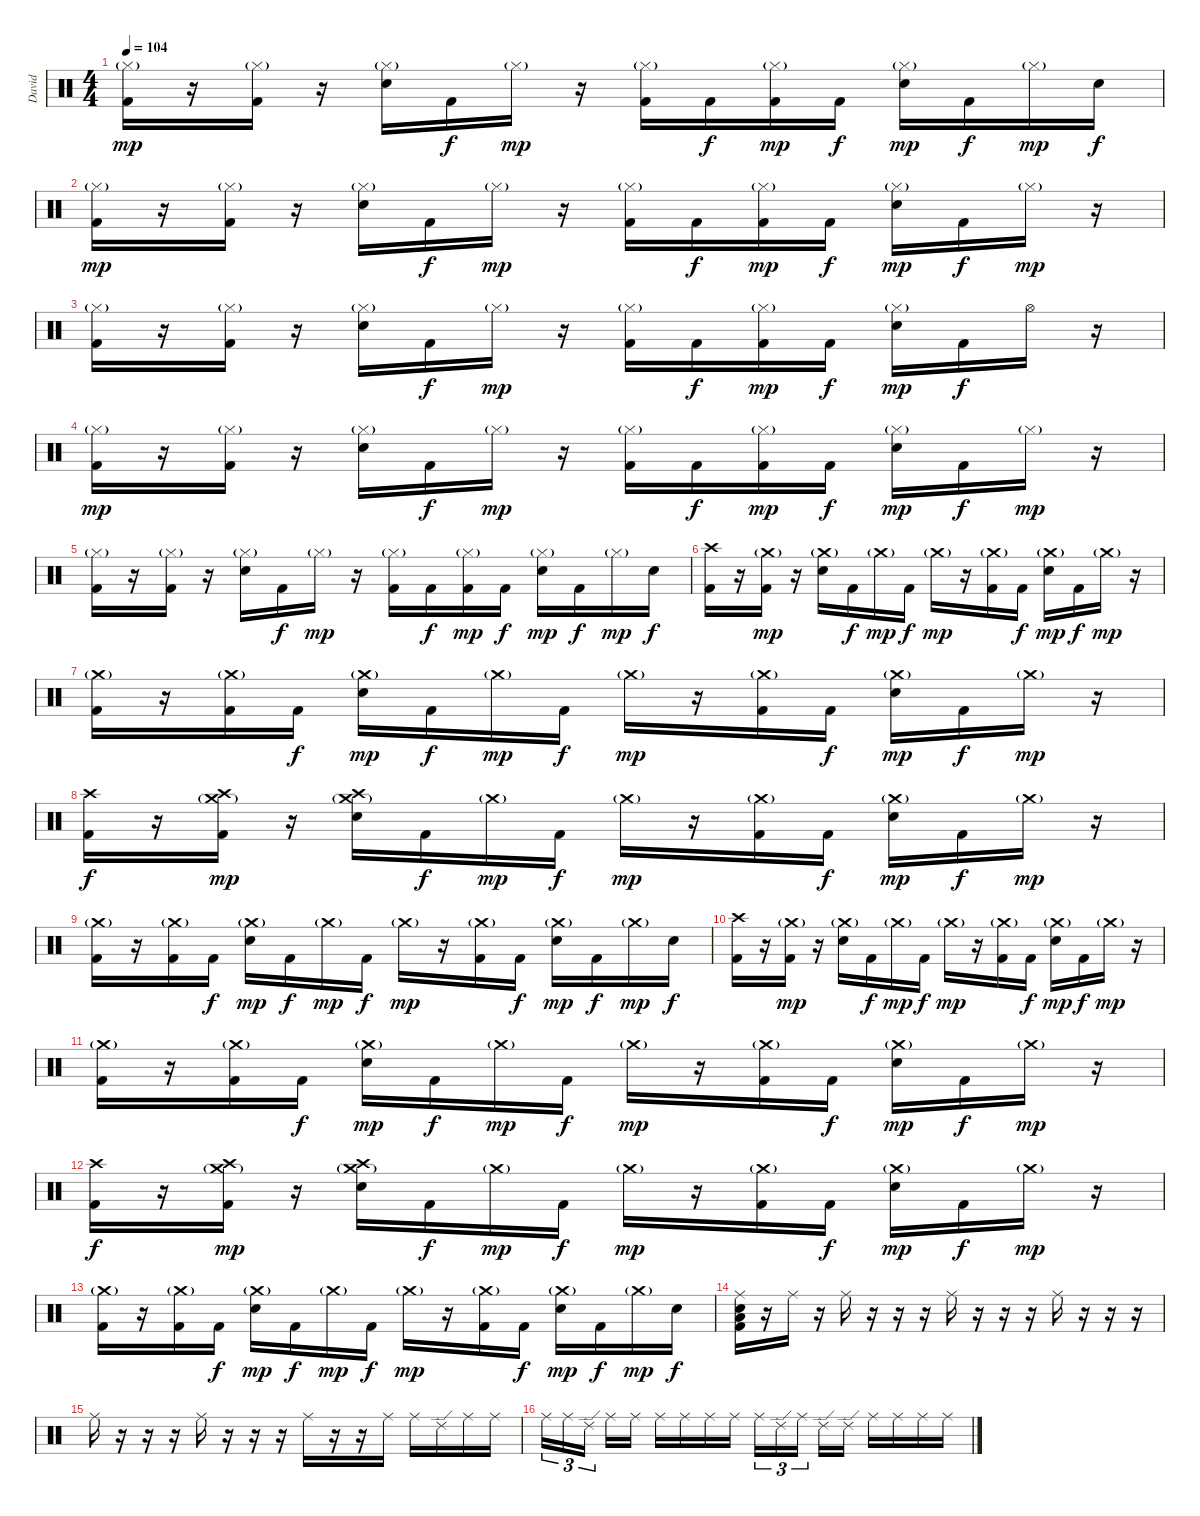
\track ("David" "David") {instrument percussion}
\staff {score}
\articulation defaults
\ts (4 4)
\tempo 104
\clef neutral
\ks c
("Hi-Hat (closed)"{g} "Kick (hit) 2").16{dy mp} r.16 ("Hi-Hat (closed)"{g} "Kick (hit) 2").16 r.16 ("Hi-Hat (closed)"{g} "Electric Snare (hit)").16 "Kick (hit) 2".16{dy f} "Hi-Hat (closed)"{g}.16{dy mp} r.16 ("Hi-Hat (closed)"{g} "Kick (hit) 2").16 "Kick (hit) 2".16{dy f} ("Hi-Hat (closed)"{g} "Kick (hit) 2").16{dy mp} "Kick (hit) 2".16{dy f} ("Hi-Hat (closed)"{g} "Electric Snare (hit)").16{dy mp} "Kick (hit) 2".16{dy f} "Hi-Hat (closed)"{g}.16{dy mp} "Electric Snare (hit)".16{dy f} |
("Hi-Hat (closed)"{g} "Kick (hit) 2").16{dy mp} r.16 ("Hi-Hat (closed)"{g} "Kick (hit) 2").16 r.16 ("Hi-Hat (closed)"{g} "Electric Snare (hit)").16 "Kick (hit) 2".16{dy f} "Hi-Hat (closed)"{g}.16{dy mp} r.16 ("Hi-Hat (closed)"{g} "Kick (hit) 2").16 "Kick (hit) 2".16{dy f} ("Hi-Hat (closed)"{g} "Kick (hit) 2").16{dy mp} "Kick (hit) 2".16{dy f} ("Hi-Hat (closed)"{g} "Electric Snare (hit)").16{dy mp} "Kick (hit) 2".16{dy f} "Hi-Hat (closed)"{g}.16{dy mp} r.16 |
("Hi-Hat (closed)"{g} "Kick (hit) 2").16 r.16 ("Hi-Hat (closed)"{g} "Kick (hit) 2").16 r.16 ("Hi-Hat (closed)"{g} "Electric Snare (hit)").16 "Kick (hit) 2".16{dy f} "Hi-Hat (closed)"{g}.16{dy mp} r.16 ("Hi-Hat (closed)"{g} "Kick (hit) 2").16 "Kick (hit) 2".16{dy f} ("Hi-Hat (closed)"{g} "Kick (hit) 2").16{dy mp} "Kick (hit) 2".16{dy f} ("Hi-Hat (closed)"{g} "Electric Snare (hit)").16{dy mp} "Kick (hit) 2".16{dy f} "Hi-Hat (open)".16 r.16 |
("Hi-Hat (closed)"{g} "Kick (hit) 2").16{dy mp} r.16 ("Hi-Hat (closed)"{g} "Kick (hit) 2").16 r.16 ("Hi-Hat (closed)"{g} "Electric Snare (hit)").16 "Kick (hit) 2".16{dy f} "Hi-Hat (closed)"{g}.16{dy mp} r.16 ("Hi-Hat (closed)"{g} "Kick (hit) 2").16 "Kick (hit) 2".16{dy f} ("Hi-Hat (closed)"{g} "Kick (hit) 2").16{dy mp} "Kick (hit) 2".16{dy f} ("Hi-Hat (closed)"{g} "Electric Snare (hit)").16{dy mp} "Kick (hit) 2".16{dy f} "Hi-Hat (closed)"{g}.16{dy mp} r.16 |
("Hi-Hat (closed)"{g} "Kick (hit) 2").16 r.16 ("Hi-Hat (closed)"{g} "Kick (hit) 2").16 r.16 ("Hi-Hat (closed)"{g} "Electric Snare (hit)").16 "Kick (hit) 2".16{dy f} "Hi-Hat (closed)"{g}.16{dy mp} r.16 ("Hi-Hat (closed)"{g} "Kick (hit) 2").16 "Kick (hit) 2".16{dy f} ("Hi-Hat (closed)"{g} "Kick (hit) 2").16{dy mp} "Kick (hit) 2".16{dy f} ("Hi-Hat (closed)"{g} "Electric Snare (hit)").16{dy mp} "Kick (hit) 2".16{dy f} "Hi-Hat (closed)"{g}.16{dy mp} "Electric Snare (hit)".16{dy f} |
("Crash high (hit)" "Kick (hit) 2").16 r.16 ("Crash medium (hit)"{g} "Kick (hit) 2").16{dy mp} r.16 ("Crash medium (hit)"{g} "Electric Snare (hit)").16 "Kick (hit) 2".16{dy f} "Crash medium (hit)"{g}.16{dy mp} "Kick (hit) 2".16{dy f} "Crash medium (hit)"{g}.16{dy mp} r.16 ("Crash medium (hit)"{g} "Kick (hit) 2").16 "Kick (hit) 2".16{dy f} ("Crash medium (hit)"{g} "Electric Snare (hit)").16{dy mp} "Kick (hit) 2".16{dy f} "Crash medium (hit)"{g}.16{dy mp} r.16 |
("Crash medium (hit)"{g} "Kick (hit) 2").16 r.16 ("Crash medium (hit)"{g} "Kick (hit) 2").16 "Kick (hit) 2".16{dy f} ("Crash medium (hit)"{g} "Electric Snare (hit)").16{dy mp} "Kick (hit) 2".16{dy f} "Crash medium (hit)"{g}.16{dy mp} "Kick (hit) 2".16{dy f} "Crash medium (hit)"{g}.16{dy mp} r.16 ("Crash medium (hit)"{g} "Kick (hit) 2").16 "Kick (hit) 2".16{dy f} ("Crash medium (hit)"{g} "Electric Snare (hit)").16{dy mp} "Kick (hit) 2".16{dy f} "Crash medium (hit)"{g}.16{dy mp} r.16 |
("Crash high (hit)" "Kick (hit) 2").16{dy f} r.16 ("Crash high (hit)" "Crash medium (hit)"{g} "Kick (hit) 2").16{dy mp} r.16 ("Crash high (hit)" "Crash medium (hit)"{g} "Electric Snare (hit)").16 "Kick (hit) 2".16{dy f} "Crash medium (hit)"{g}.16{dy mp} "Kick (hit) 2".16{dy f} "Crash medium (hit)"{g}.16{dy mp} r.16 ("Crash medium (hit)"{g} "Kick (hit) 2").16 "Kick (hit) 2".16{dy f} ("Crash medium (hit)"{g} "Electric Snare (hit)").16{dy mp} "Kick (hit) 2".16{dy f} "Crash medium (hit)"{g}.16{dy mp} r.16 |
("Crash medium (hit)"{g} "Kick (hit) 2").16 r.16 ("Crash medium (hit)"{g} "Kick (hit) 2").16 "Kick (hit) 2".16{dy f} ("Crash medium (hit)"{g} "Electric Snare (hit)").16{dy mp} "Kick (hit) 2".16{dy f} "Crash medium (hit)"{g}.16{dy mp} "Kick (hit) 2".16{dy f} "Crash medium (hit)"{g}.16{dy mp} r.16 ("Crash medium (hit)"{g} "Kick (hit) 2").16 "Kick (hit) 2".16{dy f} ("Crash medium (hit)"{g} "Electric Snare (hit)").16{dy mp} "Kick (hit) 2".16{dy f} "Crash medium (hit)"{g}.16{dy mp} "Electric Snare (hit)".16{dy f} |
("Crash high (hit)" "Kick (hit) 2").16 r.16 ("Crash medium (hit)"{g} "Kick (hit) 2").16{dy mp} r.16 ("Crash medium (hit)"{g} "Electric Snare (hit)").16 "Kick (hit) 2".16{dy f} "Crash medium (hit)"{g}.16{dy mp} "Kick (hit) 2".16{dy f} "Crash medium (hit)"{g}.16{dy mp} r.16 ("Crash medium (hit)"{g} "Kick (hit) 2").16 "Kick (hit) 2".16{dy f} ("Crash medium (hit)"{g} "Electric Snare (hit)").16{dy mp} "Kick (hit) 2".16{dy f} "Crash medium (hit)"{g}.16{dy mp} r.16 |
("Crash medium (hit)"{g} "Kick (hit) 2").16 r.16 ("Crash medium (hit)"{g} "Kick (hit) 2").16 "Kick (hit) 2".16{dy f} ("Crash medium (hit)"{g} "Electric Snare (hit)").16{dy mp} "Kick (hit) 2".16{dy f} "Crash medium (hit)"{g}.16{dy mp} "Kick (hit) 2".16{dy f} "Crash medium (hit)"{g}.16{dy mp} r.16 ("Crash medium (hit)"{g} "Kick (hit) 2").16 "Kick (hit) 2".16{dy f} ("Crash medium (hit)"{g} "Electric Snare (hit)").16{dy mp} "Kick (hit) 2".16{dy f} "Crash medium (hit)"{g}.16{dy mp} r.16 |
("Crash high (hit)" "Kick (hit) 2").16{dy f} r.16 ("Crash high (hit)" "Crash medium (hit)"{g} "Kick (hit) 2").16{dy mp} r.16 ("Crash high (hit)" "Crash medium (hit)"{g} "Electric Snare (hit)").16 "Kick (hit) 2".16{dy f} "Crash medium (hit)"{g}.16{dy mp} "Kick (hit) 2".16{dy f} "Crash medium (hit)"{g}.16{dy mp} r.16 ("Crash medium (hit)"{g} "Kick (hit) 2").16 "Kick (hit) 2".16{dy f} ("Crash medium (hit)"{g} "Electric Snare (hit)").16{dy mp} "Kick (hit) 2".16{dy f} "Crash medium (hit)"{g}.16{dy mp} r.16 |
("Crash medium (hit)"{g} "Kick (hit) 2").16 r.16 ("Crash medium (hit)"{g} "Kick (hit) 2").16 "Kick (hit) 2".16{dy f} ("Crash medium (hit)"{g} "Electric Snare (hit)").16{dy mp} "Kick (hit) 2".16{dy f} "Crash medium (hit)"{g}.16{dy mp} "Kick (hit) 2".16{dy f} "Crash medium (hit)"{g}.16{dy mp} r.16 ("Crash medium (hit)"{g} "Kick (hit) 2").16 "Kick (hit) 2".16{dy f} ("Crash medium (hit)"{g} "Electric Snare (hit)").16{dy mp} "Kick (hit) 2".16{dy f} "Crash medium (hit)"{g}.16{dy mp} "Electric Snare (hit)".16{dy f} |
("Ride (middle)" "Electric Snare (hit)" "Low Floor Tom (hit)" "Kick (hit) 2").16 r.16 "Ride (middle)".16 r.16 "Ride (middle)".16 r.16 r.16 r.16 "Ride (middle)".16 r.16 r.16 r.16 "Ride (middle)".16 r.16 r.16 r.16 |
"Ride (middle)".16 r.16 r.16 r.16 "Ride (middle)".16 r.16 r.16 r.16 "Ride (middle)".16 r.16 r.16 "Ride (middle)".16 "Ride (middle)".16 "Ride (edge) 2".16 "Ride (middle)".16 "Ride (middle)".16 |
"Ride (middle)".16{tu (3 2)} "Ride (middle)".16{tu (3 2)} "Ride (edge) 2".16{tu (3 2)} "Ride (middle)".16 "Ride (middle)".16 "Ride (middle)".16 "Ride (middle)".16 "Ride (middle)".16 "Ride (middle)".16 "Ride (middle)".16{tu (3 2)} "Ride (edge) 2".16{tu (3 2)} "Ride (middle)".16{tu (3 2)} "Ride (edge) 2".16 "Ride (edge) 2".16 "Ride (middle)".16 "Ride (middle)".16 "Ride (middle)".16 "Ride (middle)".16
